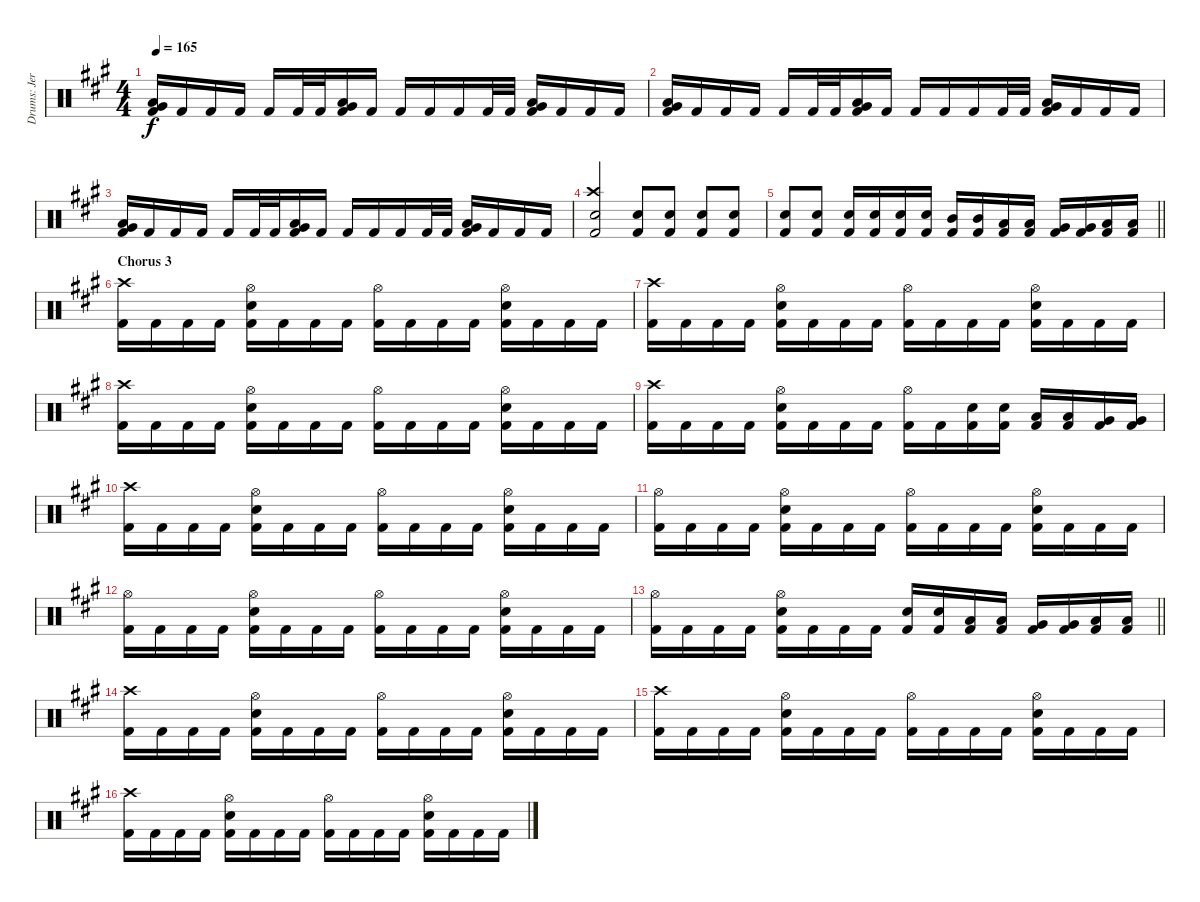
\track ("Drums: Jere Luokkamäki" "Drums: Jer") {instrument percussion}
\staff {score}
\articulation defaults
\ts (4 4)
\tempo 165
\clef neutral
\ks f#minor
("Low Tom (hit)" "Very Low Tom (hit)" "Kick (hit) 2").16{dy f} "Kick (hit) 2".16 "Kick (hit) 2".16 "Kick (hit) 2".16 "Kick (hit) 2".16 "Kick (hit) 2".32 "Kick (hit) 2".32 ("Low Tom (hit)" "Very Low Tom (hit)" "Kick (hit) 2").16 "Kick (hit) 2".16 "Kick (hit) 2".16 "Kick (hit) 2".16 "Kick (hit) 2".16 "Kick (hit) 2".32 "Kick (hit) 2".32 ("Low Tom (hit)" "Very Low Tom (hit)" "Kick (hit) 2").16 "Kick (hit) 2".16 "Kick (hit) 2".16 "Kick (hit) 2".16 |
("Low Tom (hit)" "Very Low Tom (hit)" "Kick (hit) 2").16 "Kick (hit) 2".16 "Kick (hit) 2".16 "Kick (hit) 2".16 "Kick (hit) 2".16 "Kick (hit) 2".32 "Kick (hit) 2".32 ("Low Tom (hit)" "Very Low Tom (hit)" "Kick (hit) 2").16 "Kick (hit) 2".16 "Kick (hit) 2".16 "Kick (hit) 2".16 "Kick (hit) 2".16 "Kick (hit) 2".32 "Kick (hit) 2".32 ("Low Tom (hit)" "Very Low Tom (hit)" "Kick (hit) 2").16 "Kick (hit) 2".16 "Kick (hit) 2".16 "Kick (hit) 2".16 |
("Low Tom (hit)" "Very Low Tom (hit)" "Kick (hit) 2").16 "Kick (hit) 2".16 "Kick (hit) 2".16 "Kick (hit) 2".16 "Kick (hit) 2".16 "Kick (hit) 2".32 "Kick (hit) 2".32 ("Low Tom (hit)" "Very Low Tom (hit)" "Kick (hit) 2").16 "Kick (hit) 2".16 "Kick (hit) 2".16 "Kick (hit) 2".16 "Kick (hit) 2".16 "Kick (hit) 2".32 "Kick (hit) 2".32 ("Low Tom (hit)" "Very Low Tom (hit)" "Kick (hit) 2").16 "Kick (hit) 2".16 "Kick (hit) 2".16 "Kick (hit) 2".16 |
("Crash high (hit)" "Electric Snare (hit)" "Kick (hit) 2").2 ("Electric Snare (hit)" "Kick (hit) 2").8 ("Electric Snare (hit)" "Kick (hit) 2").8 ("Electric Snare (hit)" "Kick (hit) 2").8 ("Electric Snare (hit)" "Kick (hit) 2").8 |
\barLineRight lightlight
("Electric Snare (hit)" "Kick (hit) 2").8 ("Electric Snare (hit)" "Kick (hit) 2").8 ("Electric Snare (hit)" "Kick (hit) 2").16 ("Electric Snare (hit)" "Kick (hit) 2").16 ("Electric Snare (hit)" "Kick (hit) 2").16 ("Electric Snare (hit)" "Kick (hit) 2").16 ("Mid Tom (hit)" "Kick (hit) 2").16 ("Mid Tom (hit)" "Kick (hit) 2").16 ("Low Tom (hit)" "Kick (hit) 2").16 ("Low Tom (hit)" "Kick (hit) 2").16 ("Very Low Tom (hit)" "Kick (hit) 2").16 ("Very Low Tom (hit)" "Kick (hit) 2").16 ("Low Tom (hit)" "Kick (hit) 2").16 ("Low Tom (hit)" "Kick (hit) 2").16 |
\section ("" "Chorus 3")
("Crash high (hit)" "Kick (hit) 2").16 "Kick (hit) 2".16 "Kick (hit) 2".16 "Kick (hit) 2".16 ("Hi-Hat (open)" "Electric Snare (hit)" "Kick (hit) 2").16 "Kick (hit) 2".16 "Kick (hit) 2".16 "Kick (hit) 2".16 ("Hi-Hat (open)" "Kick (hit) 2").16 "Kick (hit) 2".16 "Kick (hit) 2".16 "Kick (hit) 2".16 ("Hi-Hat (open)" "Electric Snare (hit)" "Kick (hit) 2").16 "Kick (hit) 2".16 "Kick (hit) 2".16 "Kick (hit) 2".16 |
("Crash high (hit)" "Kick (hit) 2").16 "Kick (hit) 2".16 "Kick (hit) 2".16 "Kick (hit) 2".16 ("Hi-Hat (open)" "Electric Snare (hit)" "Kick (hit) 2").16 "Kick (hit) 2".16 "Kick (hit) 2".16 "Kick (hit) 2".16 ("Hi-Hat (open)" "Kick (hit) 2").16 "Kick (hit) 2".16 "Kick (hit) 2".16 "Kick (hit) 2".16 ("Hi-Hat (open)" "Electric Snare (hit)" "Kick (hit) 2").16 "Kick (hit) 2".16 "Kick (hit) 2".16 "Kick (hit) 2".16 |
("Crash high (hit)" "Kick (hit) 2").16 "Kick (hit) 2".16 "Kick (hit) 2".16 "Kick (hit) 2".16 ("Hi-Hat (open)" "Electric Snare (hit)" "Kick (hit) 2").16 "Kick (hit) 2".16 "Kick (hit) 2".16 "Kick (hit) 2".16 ("Hi-Hat (open)" "Kick (hit) 2").16 "Kick (hit) 2".16 "Kick (hit) 2".16 "Kick (hit) 2".16 ("Hi-Hat (open)" "Electric Snare (hit)" "Kick (hit) 2").16 "Kick (hit) 2".16 "Kick (hit) 2".16 "Kick (hit) 2".16 |
("Crash high (hit)" "Kick (hit) 2").16 "Kick (hit) 2".16 "Kick (hit) 2".16 "Kick (hit) 2".16 ("Hi-Hat (open)" "Electric Snare (hit)" "Kick (hit) 2").16 "Kick (hit) 2".16 "Kick (hit) 2".16 "Kick (hit) 2".16 ("Hi-Hat (open)" "Kick (hit) 2").16 "Kick (hit) 2".16 ("Electric Snare (hit)" "Kick (hit) 2").16 ("Electric Snare (hit)" "Kick (hit) 2").16 ("Low Tom (hit)" "Kick (hit) 2").16 ("Low Tom (hit)" "Kick (hit) 2").16 ("Very Low Tom (hit)" "Kick (hit) 2").16 ("Very Low Tom (hit)" "Kick (hit) 2").16 |
("Crash high (hit)" "Kick (hit) 2").16 "Kick (hit) 2".16 "Kick (hit) 2".16 "Kick (hit) 2".16 ("Hi-Hat (open)" "Electric Snare (hit)" "Kick (hit) 2").16 "Kick (hit) 2".16 "Kick (hit) 2".16 "Kick (hit) 2".16 ("Hi-Hat (open)" "Kick (hit) 2").16 "Kick (hit) 2".16 "Kick (hit) 2".16 "Kick (hit) 2".16 ("Hi-Hat (open)" "Electric Snare (hit)" "Kick (hit) 2").16 "Kick (hit) 2".16 "Kick (hit) 2".16 "Kick (hit) 2".16 |
("Hi-Hat (open)" "Kick (hit) 2").16 "Kick (hit) 2".16 "Kick (hit) 2".16 "Kick (hit) 2".16 ("Hi-Hat (open)" "Electric Snare (hit)" "Kick (hit) 2").16 "Kick (hit) 2".16 "Kick (hit) 2".16 "Kick (hit) 2".16 ("Hi-Hat (open)" "Kick (hit) 2").16 "Kick (hit) 2".16 "Kick (hit) 2".16 "Kick (hit) 2".16 ("Hi-Hat (open)" "Electric Snare (hit)" "Kick (hit) 2").16 "Kick (hit) 2".16 "Kick (hit) 2".16 "Kick (hit) 2".16 |
("Hi-Hat (open)" "Kick (hit) 2").16 "Kick (hit) 2".16 "Kick (hit) 2".16 "Kick (hit) 2".16 ("Hi-Hat (open)" "Electric Snare (hit)" "Kick (hit) 2").16 "Kick (hit) 2".16 "Kick (hit) 2".16 "Kick (hit) 2".16 ("Hi-Hat (open)" "Kick (hit) 2").16 "Kick (hit) 2".16 "Kick (hit) 2".16 "Kick (hit) 2".16 ("Hi-Hat (open)" "Electric Snare (hit)" "Kick (hit) 2").16 "Kick (hit) 2".16 "Kick (hit) 2".16 "Kick (hit) 2".16 |
\barLineRight lightlight
("Hi-Hat (open)" "Kick (hit) 2").16 "Kick (hit) 2".16 "Kick (hit) 2".16 "Kick (hit) 2".16 ("Hi-Hat (open)" "Electric Snare (hit)" "Kick (hit) 2").16 "Kick (hit) 2".16 "Kick (hit) 2".16 "Kick (hit) 2".16 ("Electric Snare (hit)" "Kick (hit) 2").16 ("Electric Snare (hit)" "Kick (hit) 2").16 ("Low Tom (hit)" "Kick (hit) 2").16 ("Low Tom (hit)" "Kick (hit) 2").16 ("Very Low Tom (hit)" "Kick (hit) 2").16 ("Very Low Tom (hit)" "Kick (hit) 2").16 ("Low Tom (hit)" "Kick (hit) 2").16 ("Low Tom (hit)" "Kick (hit) 2").16 |
("Crash high (hit)" "Kick (hit) 2").16 "Kick (hit) 2".16 "Kick (hit) 2".16 "Kick (hit) 2".16 ("Hi-Hat (open)" "Electric Snare (hit)" "Kick (hit) 2").16 "Kick (hit) 2".16 "Kick (hit) 2".16 "Kick (hit) 2".16 ("Hi-Hat (open)" "Kick (hit) 2").16 "Kick (hit) 2".16 "Kick (hit) 2".16 "Kick (hit) 2".16 ("Hi-Hat (open)" "Electric Snare (hit)" "Kick (hit) 2").16 "Kick (hit) 2".16 "Kick (hit) 2".16 "Kick (hit) 2".16 |
("Crash high (hit)" "Kick (hit) 2").16 "Kick (hit) 2".16 "Kick (hit) 2".16 "Kick (hit) 2".16 ("Hi-Hat (open)" "Electric Snare (hit)" "Kick (hit) 2").16 "Kick (hit) 2".16 "Kick (hit) 2".16 "Kick (hit) 2".16 ("Hi-Hat (open)" "Kick (hit) 2").16 "Kick (hit) 2".16 "Kick (hit) 2".16 "Kick (hit) 2".16 ("Hi-Hat (open)" "Electric Snare (hit)" "Kick (hit) 2").16 "Kick (hit) 2".16 "Kick (hit) 2".16 "Kick (hit) 2".16 |
("Crash high (hit)" "Kick (hit) 2").16 "Kick (hit) 2".16 "Kick (hit) 2".16 "Kick (hit) 2".16 ("Hi-Hat (open)" "Electric Snare (hit)" "Kick (hit) 2").16 "Kick (hit) 2".16 "Kick (hit) 2".16 "Kick (hit) 2".16 ("Hi-Hat (open)" "Kick (hit) 2").16 "Kick (hit) 2".16 "Kick (hit) 2".16 "Kick (hit) 2".16 ("Hi-Hat (open)" "Electric Snare (hit)" "Kick (hit) 2").16 "Kick (hit) 2".16 "Kick (hit) 2".16 "Kick (hit) 2".16
